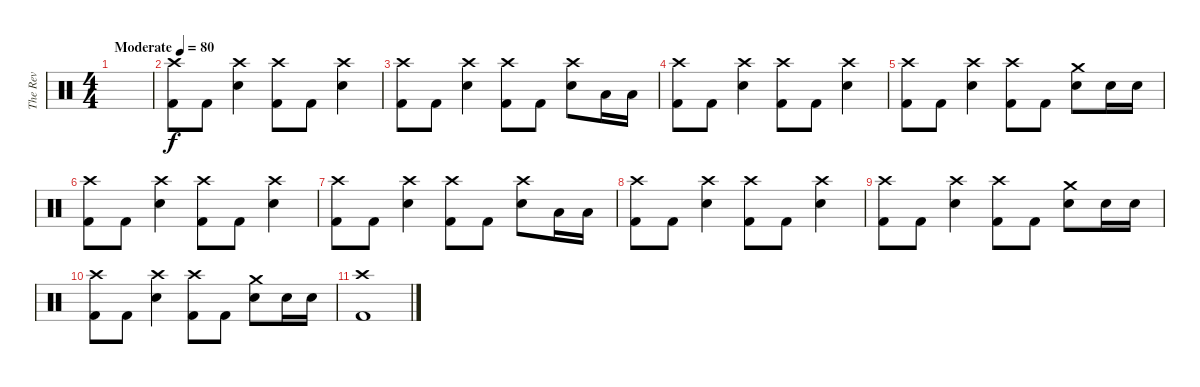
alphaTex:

\track ("The Rev" "The Rev") {instrument percussion}
\staff {score}
\articulation defaults
\ts (4 4)
\tempo (80 "Moderate")
\clef neutral
\ks c
|
("Crash high (hit)" "Kick (hit) 2").8 "Kick (hit) 2".8 ("Crash high (hit)" "Electric Snare (hit)").4 ("Crash high (hit)" "Kick (hit) 2").8 "Kick (hit) 2".8 ("Crash high (hit)" "Electric Snare (hit)").4 |
("Crash high (hit)" "Kick (hit) 2").8 "Kick (hit) 2".8 ("Crash high (hit)" "Electric Snare (hit)").4 ("Crash high (hit)" "Kick (hit) 2").8 "Kick (hit) 2".8 ("Crash high (hit)" "Electric Snare (hit)").8 "Low Tom (hit)".16 "Low Floor Tom (hit)".16 |
("Crash high (hit)" "Kick (hit) 2").8 "Kick (hit) 2".8 ("Crash high (hit)" "Electric Snare (hit)").4 ("Crash high (hit)" "Kick (hit) 2").8 "Kick (hit) 2".8 ("Crash high (hit)" "Electric Snare (hit)").4 |
("Crash high (hit)" "Kick (hit) 2").8 "Kick (hit) 2".8 ("Crash high (hit)" "Electric Snare (hit)").4 ("Crash high (hit)" "Kick (hit) 2").8 "Kick (hit) 2".8 ("Crash medium (hit)" "Electric Snare (hit)").8 "Electric Snare (hit)".16 "Electric Snare (hit)".16 |
("Crash high (hit)" "Kick (hit) 2").8 "Kick (hit) 2".8 ("Crash high (hit)" "Electric Snare (hit)").4 ("Crash high (hit)" "Kick (hit) 2").8 "Kick (hit) 2".8 ("Crash high (hit)" "Electric Snare (hit)").4 |
("Crash high (hit)" "Kick (hit) 2").8 "Kick (hit) 2".8 ("Crash high (hit)" "Electric Snare (hit)").4 ("Crash high (hit)" "Kick (hit) 2").8 "Kick (hit) 2".8 ("Crash high (hit)" "Electric Snare (hit)").8 "Low Tom (hit)".16 "Low Floor Tom (hit)".16 |
("Crash high (hit)" "Kick (hit) 2").8 "Kick (hit) 2".8 ("Crash high (hit)" "Electric Snare (hit)").4 ("Crash high (hit)" "Kick (hit) 2").8 "Kick (hit) 2".8 ("Crash high (hit)" "Electric Snare (hit)").4 |
("Crash high (hit)" "Kick (hit) 2").8 "Kick (hit) 2".8 ("Crash high (hit)" "Electric Snare (hit)").4 ("Crash high (hit)" "Kick (hit) 2").8 "Kick (hit) 2".8 ("Crash medium (hit)" "Electric Snare (hit)").8 "Electric Snare (hit)".16 "Electric Snare (hit)".16 |
("Crash high (hit)" "Kick (hit) 2").8 "Kick (hit) 2".8 ("Crash high (hit)" "Electric Snare (hit)").4 ("Crash high (hit)" "Kick (hit) 2").8 "Kick (hit) 2".8 ("Crash medium (hit)" "Electric Snare (hit)").8 "Electric Snare (hit)".16 "Electric Snare (hit)".16 |
("Crash high (hit)" "Kick (hit) 2").1
